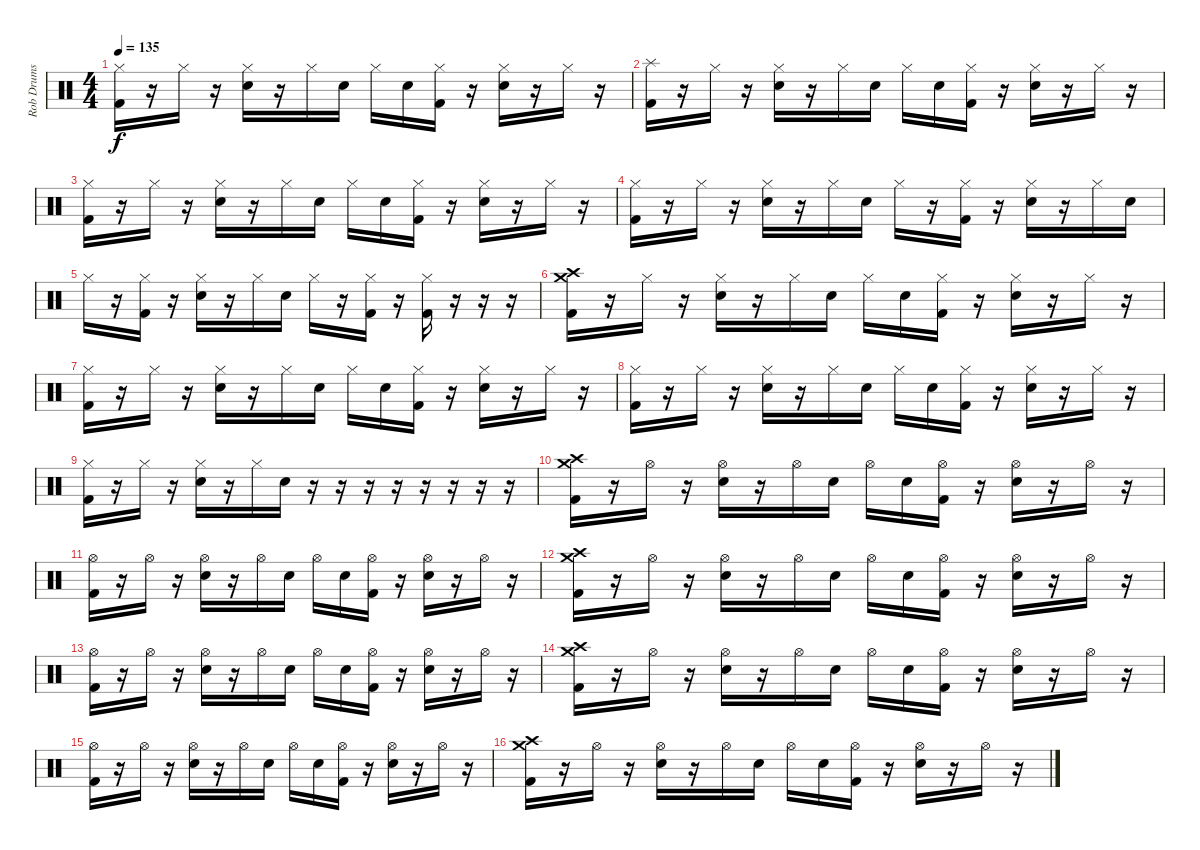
\track ("Rob Drums" "Rob Drums") {instrument percussion}
\staff {score}
\articulation defaults
\ts (4 4)
\tempo 135
\clef neutral
\ks c
("Hi-Hat (closed)" "Kick (hit) 2").16{dy f} r.16 "Hi-Hat (closed)".16 r.16 ("Hi-Hat (closed)" "Electric Snare (hit)").16 r.16 "Hi-Hat (closed)".16 "Electric Snare (hit)".16 "Hi-Hat (closed)".16 "Electric Snare (hit)".16 ("Hi-Hat (closed)" "Kick (hit) 2").16 r.16 ("Hi-Hat (closed)" "Electric Snare (hit)").16 r.16 "Hi-Hat (closed)".16 r.16 |
("Splash (hit)" "Kick (hit) 2").16 r.16 "Hi-Hat (closed)".16 r.16 ("Hi-Hat (closed)" "Electric Snare (hit)").16 r.16 "Hi-Hat (closed)".16 "Electric Snare (hit)".16 "Hi-Hat (closed)".16 "Electric Snare (hit)".16 ("Hi-Hat (closed)" "Kick (hit) 2").16 r.16 ("Hi-Hat (closed)" "Electric Snare (hit)").16 r.16 "Hi-Hat (closed)".16 r.16 |
("Hi-Hat (closed)" "Kick (hit) 2").16 r.16 "Hi-Hat (closed)".16 r.16 ("Hi-Hat (closed)" "Electric Snare (hit)").16 r.16 "Hi-Hat (closed)".16 "Electric Snare (hit)".16 "Hi-Hat (closed)".16 "Electric Snare (hit)".16 ("Hi-Hat (closed)" "Kick (hit) 2").16 r.16 ("Hi-Hat (closed)" "Electric Snare (hit)").16 r.16 "Hi-Hat (closed)".16 r.16 |
("Hi-Hat (closed)" "Kick (hit) 2").16 r.16 "Hi-Hat (closed)".16 r.16 ("Hi-Hat (closed)" "Electric Snare (hit)").16 r.16 "Hi-Hat (closed)".16 "Electric Snare (hit)".16 "Hi-Hat (closed)".16 r.16 ("Hi-Hat (closed)" "Kick (hit) 2").16 r.16 ("Hi-Hat (closed)" "Electric Snare (hit)").16 r.16 "Hi-Hat (closed)".16 "Electric Snare (hit)".16 |
"Hi-Hat (closed)".16 r.16 ("Hi-Hat (closed)" "Kick (hit) 2").16 r.16 ("Hi-Hat (closed)" "Electric Snare (hit)").16 r.16 "Hi-Hat (closed)".16 "Electric Snare (hit)".16 "Hi-Hat (closed)".16 r.16 ("Hi-Hat (closed)" "Kick (hit) 2").16 r.16 ("Hi-Hat (closed)" "Kick (hit) 2").16 r.16 r.16 r.16 |
("Crash high (hit)" "Crash medium (hit)" "Kick (hit) 2").16 r.16 "Hi-Hat (closed)".16 r.16 ("Hi-Hat (closed)" "Electric Snare (hit)").16 r.16 "Hi-Hat (closed)".16 "Electric Snare (hit)".16 "Hi-Hat (closed)".16 "Electric Snare (hit)".16 ("Hi-Hat (closed)" "Kick (hit) 2").16 r.16 ("Hi-Hat (closed)" "Electric Snare (hit)").16 r.16 "Hi-Hat (closed)".16 r.16 |
("Hi-Hat (closed)" "Kick (hit) 2").16 r.16 "Hi-Hat (closed)".16 r.16 ("Hi-Hat (closed)" "Electric Snare (hit)").16 r.16 "Hi-Hat (closed)".16 "Electric Snare (hit)".16 "Hi-Hat (closed)".16 "Electric Snare (hit)".16 ("Hi-Hat (closed)" "Kick (hit) 2").16 r.16 ("Hi-Hat (closed)" "Electric Snare (hit)").16 r.16 "Hi-Hat (closed)".16 r.16 |
("Hi-Hat (closed)" "Kick (hit) 2").16 r.16 "Hi-Hat (closed)".16 r.16 ("Hi-Hat (closed)" "Electric Snare (hit)").16 r.16 "Hi-Hat (closed)".16 "Electric Snare (hit)".16 "Hi-Hat (closed)".16 "Electric Snare (hit)".16 ("Hi-Hat (closed)" "Kick (hit) 2").16 r.16 ("Hi-Hat (closed)" "Electric Snare (hit)").16 r.16 "Hi-Hat (closed)".16 r.16 |
("Hi-Hat (closed)" "Kick (hit) 2").16 r.16 "Hi-Hat (closed)".16 r.16 ("Hi-Hat (closed)" "Electric Snare (hit)").16 r.16 "Hi-Hat (closed)".16 "Electric Snare (hit)".16 r.16 r.16 r.16 r.16 r.16 r.16 r.16 r.16 |
("Crash high (hit)" "Crash medium (hit)" "Kick (hit) 2").16 r.16 "Hi-Hat (open)".16 r.16 ("Hi-Hat (open)" "Electric Snare (hit)").16 r.16 "Hi-Hat (open)".16 "Electric Snare (hit)".16 "Hi-Hat (open)".16 "Electric Snare (hit)".16 ("Hi-Hat (open)" "Kick (hit) 2").16 r.16 ("Hi-Hat (open)" "Electric Snare (hit)").16 r.16 "Hi-Hat (open)".16 r.16 |
("Hi-Hat (open)" "Kick (hit) 2").16 r.16 "Hi-Hat (open)".16 r.16 ("Hi-Hat (open)" "Electric Snare (hit)").16 r.16 "Hi-Hat (open)".16 "Electric Snare (hit)".16 "Hi-Hat (open)".16 "Electric Snare (hit)".16 ("Hi-Hat (open)" "Kick (hit) 2").16 r.16 ("Hi-Hat (open)" "Electric Snare (hit)").16 r.16 "Hi-Hat (open)".16 r.16 |
("Crash high (hit)" "Crash medium (hit)" "Kick (hit) 2").16 r.16 "Hi-Hat (open)".16 r.16 ("Hi-Hat (open)" "Electric Snare (hit)").16 r.16 "Hi-Hat (open)".16 "Electric Snare (hit)".16 "Hi-Hat (open)".16 "Electric Snare (hit)".16 ("Hi-Hat (open)" "Kick (hit) 2").16 r.16 ("Hi-Hat (open)" "Electric Snare (hit)").16 r.16 "Hi-Hat (open)".16 r.16 |
("Hi-Hat (open)" "Kick (hit) 2").16 r.16 "Hi-Hat (open)".16 r.16 ("Hi-Hat (open)" "Electric Snare (hit)").16 r.16 "Hi-Hat (open)".16 "Electric Snare (hit)".16 "Hi-Hat (open)".16 "Electric Snare (hit)".16 ("Hi-Hat (open)" "Kick (hit) 2").16 r.16 ("Hi-Hat (open)" "Electric Snare (hit)").16 r.16 "Hi-Hat (open)".16 r.16 |
("Crash high (hit)" "Crash medium (hit)" "Kick (hit) 2").16 r.16 "Hi-Hat (open)".16 r.16 ("Hi-Hat (open)" "Electric Snare (hit)").16 r.16 "Hi-Hat (open)".16 "Electric Snare (hit)".16 "Hi-Hat (open)".16 "Electric Snare (hit)".16 ("Hi-Hat (open)" "Kick (hit) 2").16 r.16 ("Hi-Hat (open)" "Electric Snare (hit)").16 r.16 "Hi-Hat (open)".16 r.16 |
("Hi-Hat (open)" "Kick (hit) 2").16 r.16 "Hi-Hat (open)".16 r.16 ("Hi-Hat (open)" "Electric Snare (hit)").16 r.16 "Hi-Hat (open)".16 "Electric Snare (hit)".16 "Hi-Hat (open)".16 "Electric Snare (hit)".16 ("Hi-Hat (open)" "Kick (hit) 2").16 r.16 ("Hi-Hat (open)" "Electric Snare (hit)").16 r.16 "Hi-Hat (open)".16 r.16 |
("Crash high (hit)" "Crash medium (hit)" "Kick (hit) 2").16 r.16 "Hi-Hat (open)".16 r.16 ("Hi-Hat (open)" "Electric Snare (hit)").16 r.16 "Hi-Hat (open)".16 "Electric Snare (hit)".16 "Hi-Hat (open)".16 "Electric Snare (hit)".16 ("Hi-Hat (open)" "Kick (hit) 2").16 r.16 ("Hi-Hat (open)" "Electric Snare (hit)").16 r.16 "Hi-Hat (open)".16 r.16
